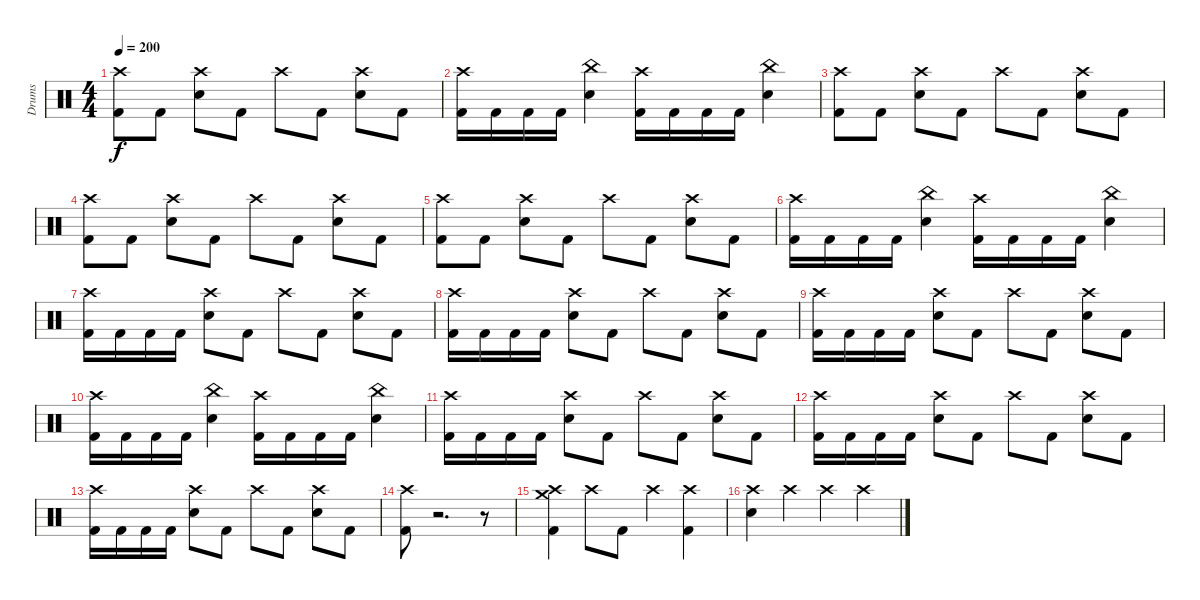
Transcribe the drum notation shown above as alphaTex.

\track ("Drums" "Drums") {instrument percussion}
\staff {score}
\articulation defaults
\ts (4 4)
\tempo 200
\clef neutral
\ks c
("Crash high (hit)" "Kick (hit) 2").8{dy f} "Kick (hit) 2".8 ("Crash high (hit)" "Electric Snare (hit)").8 "Kick (hit) 2".8 "Crash high (hit)".8 "Kick (hit) 2".8 ("Crash high (hit)" "Electric Snare (hit)").8 "Kick (hit) 2".8 |
("Crash high (hit)" "Kick (hit) 2").16 "Kick (hit) 2".16 "Kick (hit) 2".16 "Kick (hit) 2".16 ("China (hit)" "Electric Snare (hit)").4 ("Crash high (hit)" "Kick (hit) 2").16 "Kick (hit) 2".16 "Kick (hit) 2".16 "Kick (hit) 2".16 ("China (hit)" "Electric Snare (hit)").4 |
("Crash high (hit)" "Kick (hit) 2").8 "Kick (hit) 2".8 ("Crash high (hit)" "Electric Snare (hit)").8 "Kick (hit) 2".8 "Crash high (hit)".8 "Kick (hit) 2".8 ("Crash high (hit)" "Electric Snare (hit)").8 "Kick (hit) 2".8 |
("Crash high (hit)" "Kick (hit) 2").8 "Kick (hit) 2".8 ("Crash high (hit)" "Electric Snare (hit)").8 "Kick (hit) 2".8 "Crash high (hit)".8 "Kick (hit) 2".8 ("Crash high (hit)" "Electric Snare (hit)").8 "Kick (hit) 2".8 |
("Crash high (hit)" "Kick (hit) 2").8 "Kick (hit) 2".8 ("Crash high (hit)" "Electric Snare (hit)").8 "Kick (hit) 2".8 "Crash high (hit)".8 "Kick (hit) 2".8 ("Crash high (hit)" "Electric Snare (hit)").8 "Kick (hit) 2".8 |
("Crash high (hit)" "Kick (hit) 2").16 "Kick (hit) 2".16 "Kick (hit) 2".16 "Kick (hit) 2".16 ("China (hit)" "Electric Snare (hit)").4 ("Crash high (hit)" "Kick (hit) 2").16 "Kick (hit) 2".16 "Kick (hit) 2".16 "Kick (hit) 2".16 ("China (hit)" "Electric Snare (hit)").4 |
("Crash high (hit)" "Kick (hit) 2").16 "Kick (hit) 2".16 "Kick (hit) 2".16 "Kick (hit) 2".16 ("Crash high (hit)" "Electric Snare (hit)").8 "Kick (hit) 2".8 "Crash high (hit)".8 "Kick (hit) 2".8 ("Crash high (hit)" "Electric Snare (hit)").8 "Kick (hit) 2".8 |
("Crash high (hit)" "Kick (hit) 2").16 "Kick (hit) 2".16 "Kick (hit) 2".16 "Kick (hit) 2".16 ("Crash high (hit)" "Electric Snare (hit)").8 "Kick (hit) 2".8 "Crash high (hit)".8 "Kick (hit) 2".8 ("Crash high (hit)" "Electric Snare (hit)").8 "Kick (hit) 2".8 |
("Crash high (hit)" "Kick (hit) 2").16 "Kick (hit) 2".16 "Kick (hit) 2".16 "Kick (hit) 2".16 ("Crash high (hit)" "Electric Snare (hit)").8 "Kick (hit) 2".8 "Crash high (hit)".8 "Kick (hit) 2".8 ("Crash high (hit)" "Electric Snare (hit)").8 "Kick (hit) 2".8 |
("Crash high (hit)" "Kick (hit) 2").16 "Kick (hit) 2".16 "Kick (hit) 2".16 "Kick (hit) 2".16 ("China (hit)" "Electric Snare (hit)").4 ("Crash high (hit)" "Kick (hit) 2").16 "Kick (hit) 2".16 "Kick (hit) 2".16 "Kick (hit) 2".16 ("China (hit)" "Electric Snare (hit)").4 |
("Crash high (hit)" "Kick (hit) 2").16 "Kick (hit) 2".16 "Kick (hit) 2".16 "Kick (hit) 2".16 ("Crash high (hit)" "Electric Snare (hit)").8 "Kick (hit) 2".8 "Crash high (hit)".8 "Kick (hit) 2".8 ("Crash high (hit)" "Electric Snare (hit)").8 "Kick (hit) 2".8 |
("Crash high (hit)" "Kick (hit) 2").16 "Kick (hit) 2".16 "Kick (hit) 2".16 "Kick (hit) 2".16 ("Crash high (hit)" "Electric Snare (hit)").8 "Kick (hit) 2".8 "Crash high (hit)".8 "Kick (hit) 2".8 ("Crash high (hit)" "Electric Snare (hit)").8 "Kick (hit) 2".8 |
("Crash high (hit)" "Kick (hit) 2").16 "Kick (hit) 2".16 "Kick (hit) 2".16 "Kick (hit) 2".16 ("Crash high (hit)" "Electric Snare (hit)").8 "Kick (hit) 2".8 "Crash high (hit)".8 "Kick (hit) 2".8 ("Crash high (hit)" "Electric Snare (hit)").8 "Kick (hit) 2".8 |
("Crash high (hit)" "Kick (hit) 2").8 r.2{d volume 0} r.8 |
("Crash high (hit)" "Crash medium (hit)" "Kick (hit) 2").4{volume 16} "Crash high (hit)".8 "Kick (hit) 2".8 "Crash high (hit)".4 ("Crash high (hit)" "Kick (hit) 2").4 |
("Crash high (hit)" "Electric Snare (hit)").4 "Crash high (hit)".4 "Crash high (hit)".4 "Crash high (hit)".4
